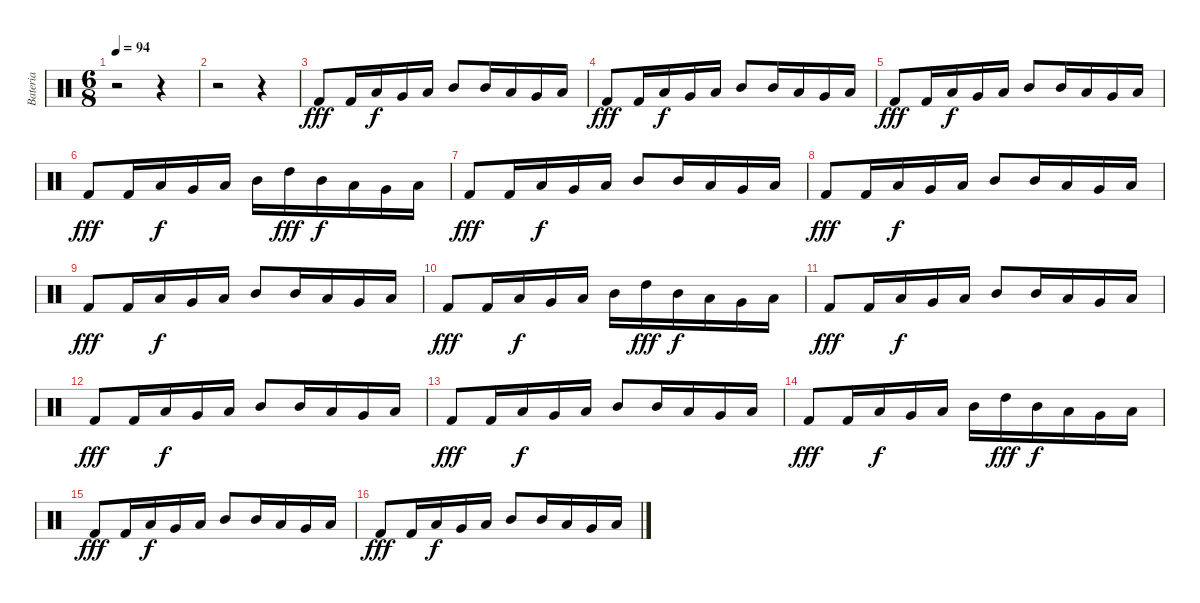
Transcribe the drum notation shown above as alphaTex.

\track ("Bateria" "Bateria") {instrument percussion}
\staff {score}
\articulation defaults
\ts (6 8)
\tempo 94
\clef neutral
\ks c
r.2{dy fff} r.4 |
r.2 r.4 |
"Kick (hit) 2".8 "Kick (hit) 2".16 "Low Floor Tom (hit)".16{dy f} "Very Low Tom (hit)".16 "Low Tom (hit)".16 "Mid Tom (hit)".8 "Mid Tom (hit)".16 "Low Tom (hit)".16 "Very Low Tom (hit)".16 "Low Floor Tom (hit)".16 |
"Kick (hit) 2".8{dy fff} "Kick (hit) 2".16 "Low Floor Tom (hit)".16{dy f} "Very Low Tom (hit)".16 "Low Tom (hit)".16 "Mid Tom (hit)".8 "Mid Tom (hit)".16 "Low Tom (hit)".16 "Very Low Tom (hit)".16 "Low Floor Tom (hit)".16 |
"Kick (hit) 2".8{dy fff} "Kick (hit) 2".16 "Low Floor Tom (hit)".16{dy f} "Very Low Tom (hit)".16 "Low Tom (hit)".16 "Mid Tom (hit)".8 "Mid Tom (hit)".16 "Low Tom (hit)".16 "Very Low Tom (hit)".16 "Low Floor Tom (hit)".16 |
"Kick (hit) 2".8{dy fff} "Kick (hit) 2".16 "Low Floor Tom (hit)".16{dy f} "Very Low Tom (hit)".16 "Low Tom (hit)".16 "Mid Tom (hit)".16 "High Tom (hit)".16{dy fff} "Mid Tom (hit)".16{dy f} "Low Tom (hit)".16 "Very Low Tom (hit)".16 "Low Floor Tom (hit)".16 |
"Kick (hit) 2".8{dy fff} "Kick (hit) 2".16 "Low Floor Tom (hit)".16{dy f} "Very Low Tom (hit)".16 "Low Tom (hit)".16 "Mid Tom (hit)".8 "Mid Tom (hit)".16 "Low Tom (hit)".16 "Very Low Tom (hit)".16 "Low Floor Tom (hit)".16 |
"Kick (hit) 2".8{dy fff} "Kick (hit) 2".16 "Low Floor Tom (hit)".16{dy f} "Very Low Tom (hit)".16 "Low Tom (hit)".16 "Mid Tom (hit)".8 "Mid Tom (hit)".16 "Low Tom (hit)".16 "Very Low Tom (hit)".16 "Low Floor Tom (hit)".16 |
"Kick (hit) 2".8{dy fff} "Kick (hit) 2".16 "Low Floor Tom (hit)".16{dy f} "Very Low Tom (hit)".16 "Low Tom (hit)".16 "Mid Tom (hit)".8 "Mid Tom (hit)".16 "Low Tom (hit)".16 "Very Low Tom (hit)".16 "Low Floor Tom (hit)".16 |
"Kick (hit) 2".8{dy fff} "Kick (hit) 2".16 "Low Floor Tom (hit)".16{dy f} "Very Low Tom (hit)".16 "Low Tom (hit)".16 "Mid Tom (hit)".16 "High Tom (hit)".16{dy fff} "Mid Tom (hit)".16{dy f} "Low Tom (hit)".16 "Very Low Tom (hit)".16 "Low Floor Tom (hit)".16 |
"Kick (hit) 2".8{dy fff} "Kick (hit) 2".16 "Low Floor Tom (hit)".16{dy f} "Very Low Tom (hit)".16 "Low Tom (hit)".16 "Mid Tom (hit)".8 "Mid Tom (hit)".16 "Low Tom (hit)".16 "Very Low Tom (hit)".16 "Low Floor Tom (hit)".16 |
"Kick (hit) 2".8{dy fff} "Kick (hit) 2".16 "Low Floor Tom (hit)".16{dy f} "Very Low Tom (hit)".16 "Low Tom (hit)".16 "Mid Tom (hit)".8 "Mid Tom (hit)".16 "Low Tom (hit)".16 "Very Low Tom (hit)".16 "Low Floor Tom (hit)".16 |
"Kick (hit) 2".8{dy fff} "Kick (hit) 2".16 "Low Floor Tom (hit)".16{dy f} "Very Low Tom (hit)".16 "Low Tom (hit)".16 "Mid Tom (hit)".8 "Mid Tom (hit)".16 "Low Tom (hit)".16 "Very Low Tom (hit)".16 "Low Floor Tom (hit)".16 |
"Kick (hit) 2".8{dy fff} "Kick (hit) 2".16 "Low Floor Tom (hit)".16{dy f} "Very Low Tom (hit)".16 "Low Tom (hit)".16 "Mid Tom (hit)".16 "High Tom (hit)".16{dy fff} "Mid Tom (hit)".16{dy f} "Low Tom (hit)".16 "Very Low Tom (hit)".16 "Low Floor Tom (hit)".16 |
"Kick (hit) 2".8{dy fff} "Kick (hit) 2".16 "Low Floor Tom (hit)".16{dy f} "Very Low Tom (hit)".16 "Low Tom (hit)".16 "Mid Tom (hit)".8 "Mid Tom (hit)".16 "Low Tom (hit)".16 "Very Low Tom (hit)".16 "Low Floor Tom (hit)".16 |
"Kick (hit) 2".8{dy fff} "Kick (hit) 2".16 "Low Floor Tom (hit)".16{dy f} "Very Low Tom (hit)".16 "Low Tom (hit)".16 "Mid Tom (hit)".8 "Mid Tom (hit)".16 "Low Tom (hit)".16 "Very Low Tom (hit)".16 "Low Floor Tom (hit)".16
